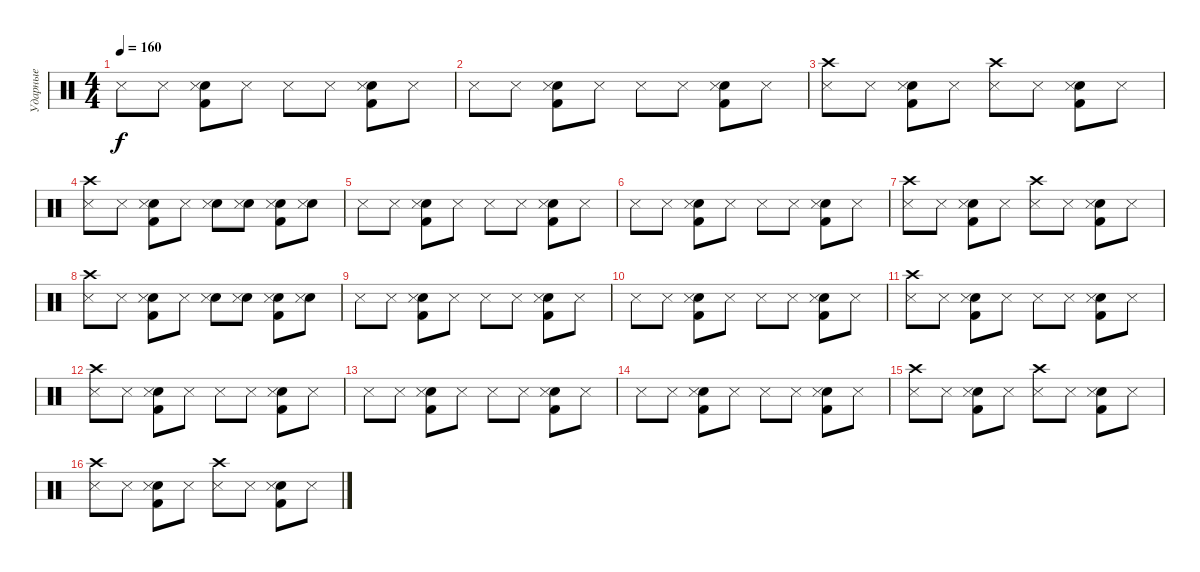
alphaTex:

\track ("Ударные" "Ударные") {instrument percussion}
\staff {score}
\articulation defaults
\ts (4 4)
\tempo 160
\clef neutral
\ks c "Snare (side stick) 3".8{dy f} "Snare (side stick) 3".8
("Kick (hit) 2" "Snare (hit) 2" "Snare (side stick) 3").8 "Snare (side stick) 3".8 "Snare (side stick) 3".8 "Snare (side stick) 3".8 ("Kick (hit) 2" "Snare (hit) 2" "Snare (side stick) 3").8 "Snare (side stick) 3".8 |
"Snare (side stick) 3".8 "Snare (side stick) 3".8 ("Kick (hit) 2" "Snare (hit) 2" "Snare (side stick) 3").8 "Snare (side stick) 3".8 "Snare (side stick) 3".8 "Snare (side stick) 3".8 ("Kick (hit) 2" "Snare (hit) 2" "Snare (side stick) 3").8 "Snare (side stick) 3".8 |
("Crash high (hit)" "Snare (side stick) 3").8 "Snare (side stick) 3".8 ("Kick (hit) 2" "Snare (hit) 2" "Snare (side stick) 3").8 "Snare (side stick) 3".8 ("Crash high (hit)" "Snare (side stick) 3").8 "Snare (side stick) 3".8 ("Kick (hit) 2" "Snare (hit) 2" "Snare (side stick) 3").8 "Snare (side stick) 3".8 |
("Crash high (hit)" "Snare (side stick) 3").8 "Snare (side stick) 3".8 ("Kick (hit) 2" "Snare (hit) 2" "Snare (side stick) 3").8 "Snare (side stick) 3".8 ("Snare (hit) 2" "Snare (side stick) 3").8 ("Snare (hit) 2" "Snare (side stick) 3").8 ("Kick (hit) 2" "Snare (hit) 2" "Snare (side stick) 3").8 ("Snare (hit) 2" "Snare (side stick) 3").8 |
"Snare (side stick) 3".8 "Snare (side stick) 3".8 ("Kick (hit) 2" "Snare (hit) 2" "Snare (side stick) 3").8 "Snare (side stick) 3".8 "Snare (side stick) 3".8 "Snare (side stick) 3".8 ("Kick (hit) 2" "Snare (hit) 2" "Snare (side stick) 3").8 "Snare (side stick) 3".8 |
"Snare (side stick) 3".8 "Snare (side stick) 3".8 ("Kick (hit) 2" "Snare (hit) 2" "Snare (side stick) 3").8 "Snare (side stick) 3".8 "Snare (side stick) 3".8 "Snare (side stick) 3".8 ("Kick (hit) 2" "Snare (hit) 2" "Snare (side stick) 3").8 "Snare (side stick) 3".8 |
("Crash high (hit)" "Snare (side stick) 3").8 "Snare (side stick) 3".8 ("Kick (hit) 2" "Snare (hit) 2" "Snare (side stick) 3").8 "Snare (side stick) 3".8 ("Crash high (hit)" "Snare (side stick) 3").8 "Snare (side stick) 3".8 ("Kick (hit) 2" "Snare (hit) 2" "Snare (side stick) 3").8 "Snare (side stick) 3".8 |
("Crash high (hit)" "Snare (side stick) 3").8 "Snare (side stick) 3".8 ("Kick (hit) 2" "Snare (hit) 2" "Snare (side stick) 3").8 "Snare (side stick) 3".8 ("Snare (hit) 2" "Snare (side stick) 3").8 ("Snare (hit) 2" "Snare (side stick) 3").8 ("Kick (hit) 2" "Snare (hit) 2" "Snare (side stick) 3").8 ("Snare (hit) 2" "Snare (side stick) 3").8 |
"Snare (side stick) 3".8 "Snare (side stick) 3".8 ("Kick (hit) 2" "Snare (hit) 2" "Snare (side stick) 3").8 "Snare (side stick) 3".8 "Snare (side stick) 3".8 "Snare (side stick) 3".8 ("Kick (hit) 2" "Snare (hit) 2" "Snare (side stick) 3").8 "Snare (side stick) 3".8 |
"Snare (side stick) 3".8 "Snare (side stick) 3".8 ("Kick (hit) 2" "Snare (hit) 2" "Snare (side stick) 3").8 "Snare (side stick) 3".8 "Snare (side stick) 3".8 "Snare (side stick) 3".8 ("Kick (hit) 2" "Snare (hit) 2" "Snare (side stick) 3").8 "Snare (side stick) 3".8 |
("Crash high (hit)" "Snare (side stick) 3").8 "Snare (side stick) 3".8 ("Kick (hit) 2" "Snare (hit) 2" "Snare (side stick) 3").8 "Snare (side stick) 3".8 "Snare (side stick) 3".8 "Snare (side stick) 3".8 ("Kick (hit) 2" "Snare (hit) 2" "Snare (side stick) 3").8 "Snare (side stick) 3".8 |
("Crash high (hit)" "Snare (side stick) 3").8 "Snare (side stick) 3".8 ("Kick (hit) 2" "Snare (hit) 2" "Snare (side stick) 3").8 "Snare (side stick) 3".8 "Snare (side stick) 3".8 "Snare (side stick) 3".8 ("Kick (hit) 2" "Snare (hit) 2" "Snare (side stick) 3").8 "Snare (side stick) 3".8 |
"Snare (side stick) 3".8 "Snare (side stick) 3".8 ("Kick (hit) 2" "Snare (hit) 2" "Snare (side stick) 3").8 "Snare (side stick) 3".8 "Snare (side stick) 3".8 "Snare (side stick) 3".8 ("Kick (hit) 2" "Snare (hit) 2" "Snare (side stick) 3").8 "Snare (side stick) 3".8 |
"Snare (side stick) 3".8 "Snare (side stick) 3".8 ("Kick (hit) 2" "Snare (hit) 2" "Snare (side stick) 3").8 "Snare (side stick) 3".8 "Snare (side stick) 3".8 "Snare (side stick) 3".8 ("Kick (hit) 2" "Snare (hit) 2" "Snare (side stick) 3").8 "Snare (side stick) 3".8 |
("Crash high (hit)" "Snare (side stick) 3").8 "Snare (side stick) 3".8 ("Kick (hit) 2" "Snare (hit) 2" "Snare (side stick) 3").8 "Snare (side stick) 3".8 ("Crash high (hit)" "Snare (side stick) 3").8 "Snare (side stick) 3".8 ("Kick (hit) 2" "Snare (hit) 2" "Snare (side stick) 3").8 "Snare (side stick) 3".8 |
("Crash high (hit)" "Snare (side stick) 3").8 "Snare (side stick) 3".8 ("Kick (hit) 2" "Snare (hit) 2" "Snare (side stick) 3").8 "Snare (side stick) 3".8 ("Crash high (hit)" "Snare (side stick) 3").8 "Snare (side stick) 3".8 ("Kick (hit) 2" "Snare (hit) 2" "Snare (side stick) 3").8 "Snare (side stick) 3".8
